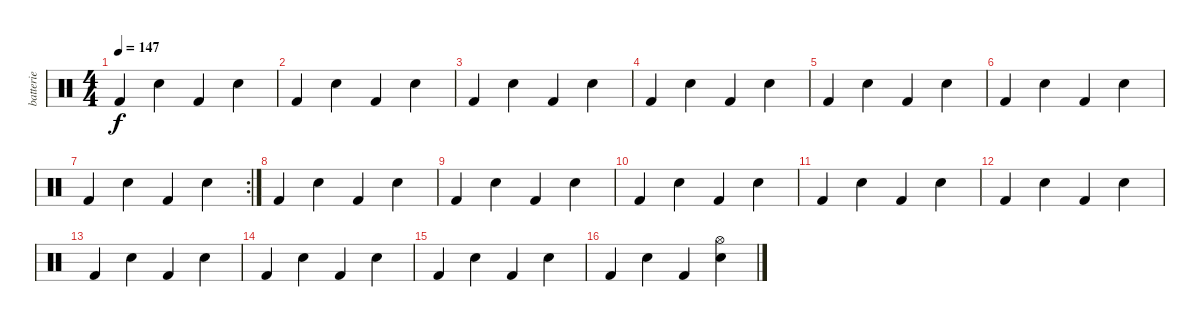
\track ("batterie" "batterie") {instrument percussion}
\staff {score}
\articulation defaults
\ts (4 4)
\tempo 147
\clef neutral
\ks c "Kick (hit) 2".4{dy f} "Snare (hit) 2".4 "Kick (hit) 2".4 "Snare (hit) 2".4
|
"Kick (hit) 2".4 "Snare (hit) 2".4 "Kick (hit) 2".4 "Snare (hit) 2".4 |
"Kick (hit) 2".4 "Snare (hit) 2".4 "Kick (hit) 2".4 "Snare (hit) 2".4 |
"Kick (hit) 2".4 "Snare (hit) 2".4 "Kick (hit) 2".4 "Snare (hit) 2".4 |
"Kick (hit) 2".4 "Snare (hit) 2".4 "Kick (hit) 2".4 "Snare (hit) 2".4 |
"Kick (hit) 2".4 "Snare (hit) 2".4 "Kick (hit) 2".4 "Snare (hit) 2".4 |
\rc 2 "Kick (hit) 2".4 "Snare (hit) 2".4 "Kick (hit) 2".4 "Snare (hit) 2".4
|
"Kick (hit) 2".4 "Snare (hit) 2".4 "Kick (hit) 2".4 "Snare (hit) 2".4 |
"Kick (hit) 2".4 "Snare (hit) 2".4 "Kick (hit) 2".4 "Snare (hit) 2".4 |
"Kick (hit) 2".4 "Snare (hit) 2".4 "Kick (hit) 2".4 "Snare (hit) 2".4 |
"Kick (hit) 2".4 "Snare (hit) 2".4 "Kick (hit) 2".4 "Snare (hit) 2".4 |
"Kick (hit) 2".4 "Snare (hit) 2".4 "Kick (hit) 2".4 "Snare (hit) 2".4 |
"Kick (hit) 2".4 "Snare (hit) 2".4 "Kick (hit) 2".4 "Snare (hit) 2".4 |
"Kick (hit) 2".4 "Snare (hit) 2".4 "Kick (hit) 2".4 "Snare (hit) 2".4 |
"Kick (hit) 2".4 "Snare (hit) 2".4 "Kick (hit) 2".4 "Snare (hit) 2".4 |
"Kick (hit) 2".4 "Snare (hit) 2".4 "Kick (hit) 2".4 ("Snare (hit) 2" "Hi-Hat (open)").4
